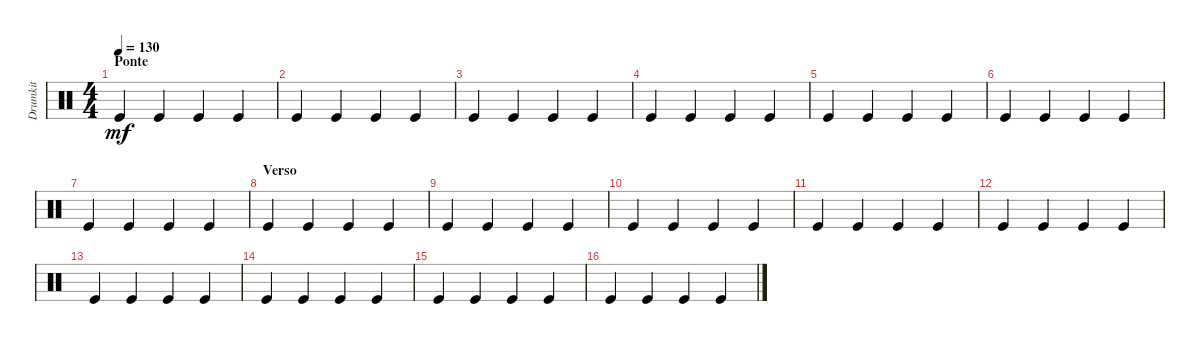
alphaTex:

\track ("Drumkit" "Drumkit") {instrument percussion}
\staff {score}
\articulation defaults
\ts (4 4)
\section ("" "Ponte")
\tempo 130
\clef neutral
\ks c "Kick (hit)".4{dy mf} "Kick (hit)".4 "Kick (hit)".4 "Kick (hit)".4
|
"Kick (hit)".4 "Kick (hit)".4 "Kick (hit)".4 "Kick (hit)".4 |
"Kick (hit)".4 "Kick (hit)".4 "Kick (hit)".4 "Kick (hit)".4 |
"Kick (hit)".4 "Kick (hit)".4 "Kick (hit)".4 "Kick (hit)".4 |
"Kick (hit)".4 "Kick (hit)".4 "Kick (hit)".4 "Kick (hit)".4 |
"Kick (hit)".4 "Kick (hit)".4 "Kick (hit)".4 "Kick (hit)".4 |
"Kick (hit)".4 "Kick (hit)".4 "Kick (hit)".4 "Kick (hit)".4 |
\section ("" "Verso")
"Kick (hit)".4 "Kick (hit)".4 "Kick (hit)".4 "Kick (hit)".4 |
"Kick (hit)".4 "Kick (hit)".4 "Kick (hit)".4 "Kick (hit)".4 |
"Kick (hit)".4 "Kick (hit)".4 "Kick (hit)".4 "Kick (hit)".4 |
"Kick (hit)".4 "Kick (hit)".4 "Kick (hit)".4 "Kick (hit)".4 |
"Kick (hit)".4 "Kick (hit)".4 "Kick (hit)".4 "Kick (hit)".4 |
"Kick (hit)".4 "Kick (hit)".4 "Kick (hit)".4 "Kick (hit)".4 |
"Kick (hit)".4 "Kick (hit)".4 "Kick (hit)".4 "Kick (hit)".4 |
"Kick (hit)".4 "Kick (hit)".4 "Kick (hit)".4 "Kick (hit)".4 |
"Kick (hit)".4 "Kick (hit)".4 "Kick (hit)".4 "Kick (hit)".4
